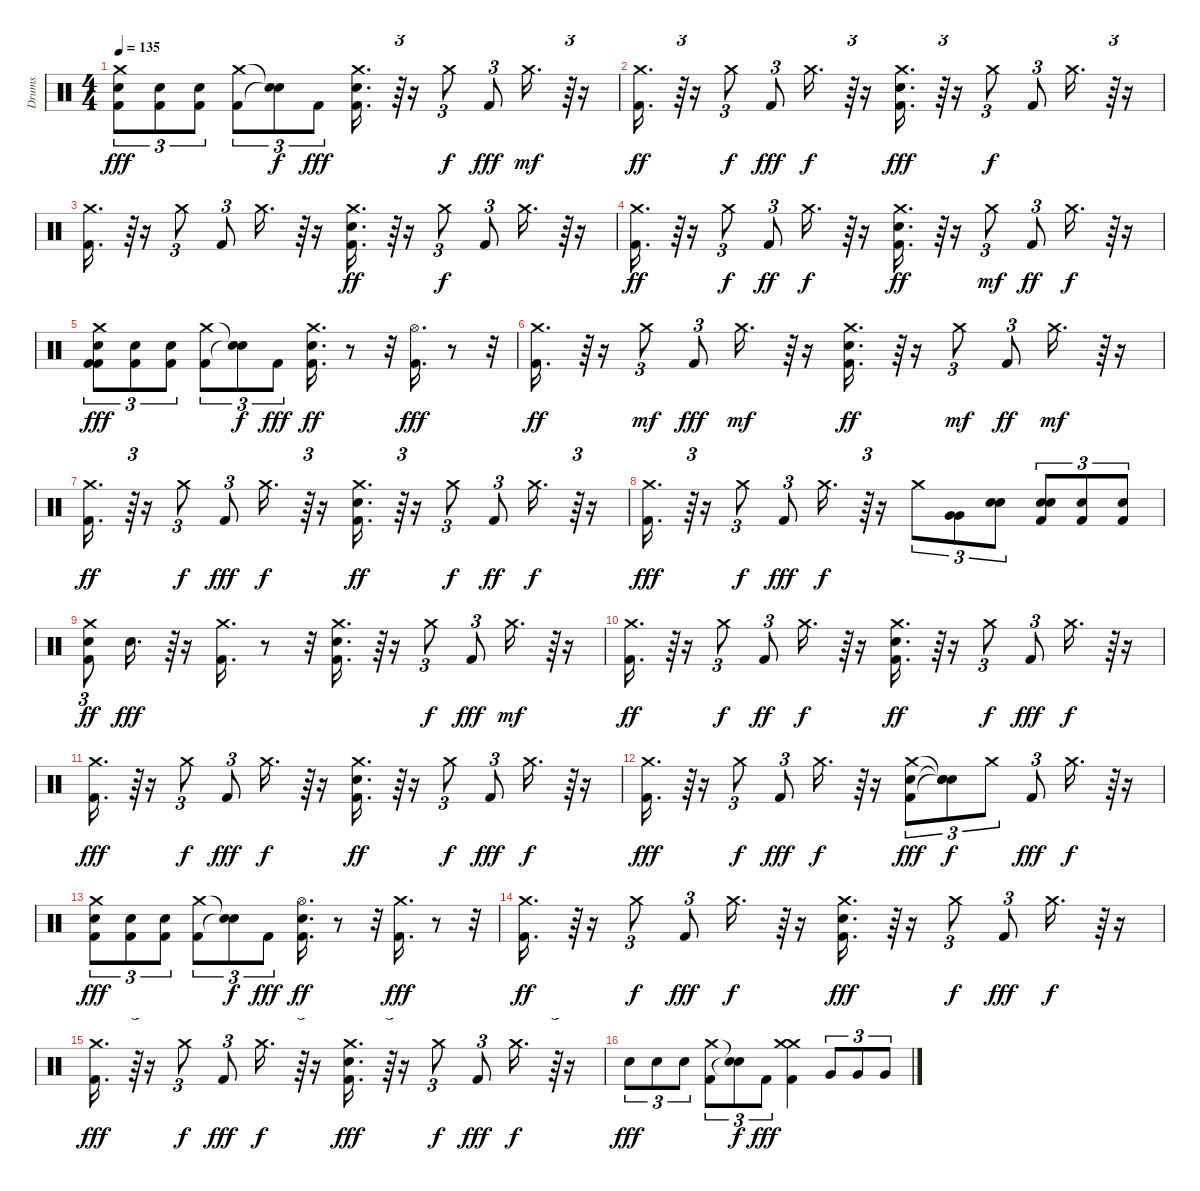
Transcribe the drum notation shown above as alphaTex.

\track ("Drums" "Drums") {instrument percussion}
\staff {score}
\articulation defaults
\ts (4 4)
\tempo 135
\clef neutral
\ks c
("Crash medium (hit)" "Snare (hit) 2" "Kick (hit) 2").8{tu (3 2) dy fff} ("Snare (hit) 2" "Kick (hit) 2").8{tu (3 2)} ("Kick (hit) 2" "Snare (hit) 2").8{tu (3 2)} ("Crash medium (hit)" "Kick (hit) 2").8{tu (3 2)} ("Snare (hit)"{t} "Snare (hit)"{t}).8{tu (3 2) dy f} "Kick (hit) 2".8{tu (3 2) dy fff} ("Crash medium (hit)" "Snare (hit) 2" "Kick (hit) 2").16{d} r.64{tu (3 2)} r.16 "Crash medium (hit)".8{tu (3 2) dy f} "Kick (hit) 2".8{tu (3 2) dy fff} "Crash medium (hit)".16{d dy mf} r.64{tu (3 2)} r.16 |
("Crash medium (hit)" "Kick (hit) 2").16{d dy ff} r.64{tu (3 2)} r.16 "Crash medium (hit)".8{tu (3 2) dy f} "Kick (hit) 2".8{tu (3 2) dy fff} "Crash medium (hit)".16{d dy f} r.64{tu (3 2)} r.16 ("Crash medium (hit)" "Kick (hit) 2" "Snare (hit) 2").16{d dy fff} r.64{tu (3 2)} r.16 "Crash medium (hit)".8{tu (3 2) dy f} "Kick (hit) 2".8{tu (3 2)} "Crash medium (hit)".16{d} r.64{tu (3 2)} r.16 |
("Crash medium (hit)" "Kick (hit) 2").16{d} r.64{tu (3 2)} r.16 "Crash medium (hit)".8{tu (3 2)} "Kick (hit) 2".8{tu (3 2)} "Crash medium (hit)".16{d} r.64{tu (3 2)} r.16 ("Crash medium (hit)" "Kick (hit) 2" "Snare (hit) 2").16{d dy ff} r.64{tu (3 2)} r.16 "Crash medium (hit)".8{tu (3 2) dy f} "Kick (hit) 2".8{tu (3 2)} "Crash medium (hit)".16{d} r.64{tu (3 2)} r.16 |
("Crash medium (hit)" "Kick (hit) 2").16{d dy ff} r.64{tu (3 2)} r.16 "Crash medium (hit)".8{tu (3 2) dy f} "Kick (hit) 2".8{tu (3 2) dy ff} "Crash medium (hit)".16{d dy f} r.64{tu (3 2)} r.16 ("Crash medium (hit)" "Kick (hit) 2" "Snare (hit) 2").16{d dy ff} r.64{tu (3 2)} r.16 "Crash medium (hit)".8{tu (3 2) dy mf} "Kick (hit) 2".8{tu (3 2) dy ff} "Crash medium (hit)".16{d dy f} r.64{tu (3 2)} r.16 |
("Crash medium (hit)" "Kick (hit) 2" "Snare (hit) 2" "Kick (hit) 2").8{tu (3 2) dy fff} ("Kick (hit) 2" "Snare (hit) 2").8{tu (3 2)} ("Snare (hit) 2" "Kick (hit) 2").8{tu (3 2)} ("Crash medium (hit)" "Kick (hit) 2").8{tu (3 2)} ("Snare (hit)"{t} "Snare (hit)"{t}).8{tu (3 2) dy f} "Kick (hit) 2".8{tu (3 2) dy fff} ("Crash medium (hit)" "Kick (hit) 2" "Snare (hit) 2").16{d dy ff} r.8 r.32 ("Hi-Hat (open)" "Kick (hit) 2").16{d dy fff} r.8 r.32 |
("Crash medium (hit)" "Kick (hit) 2").16{d dy ff} r.64{tu (3 2)} r.16 "Crash medium (hit)".8{tu (3 2) dy mf} "Kick (hit) 2".8{tu (3 2) dy fff} "Crash medium (hit)".16{d dy mf} r.64{tu (3 2)} r.16 ("Crash medium (hit)" "Kick (hit) 2" "Snare (hit) 2").16{d dy ff} r.64{tu (3 2)} r.16 "Crash medium (hit)".8{tu (3 2) dy mf} "Kick (hit) 2".8{tu (3 2) dy ff} "Crash medium (hit)".16{d dy mf} r.64{tu (3 2)} r.16 |
("Crash medium (hit)" "Kick (hit) 2").16{d dy ff} r.64{tu (3 2)} r.16 "Crash medium (hit)".8{tu (3 2) dy f} "Kick (hit) 2".8{tu (3 2) dy fff} "Crash medium (hit)".16{d dy f} r.64{tu (3 2)} r.16 ("Crash medium (hit)" "Snare (hit) 2" "Kick (hit) 2").16{d dy ff} r.64{tu (3 2)} r.16 "Crash medium (hit)".8{tu (3 2) dy f} "Kick (hit) 2".8{tu (3 2) dy ff} "Crash medium (hit)".16{d dy f} r.64{tu (3 2)} r.16 |
("Crash medium (hit)" "Kick (hit) 2").16{d dy fff} r.64{tu (3 2)} r.16 "Crash medium (hit)".8{tu (3 2) dy f} "Kick (hit) 2".8{tu (3 2) dy fff} "Crash medium (hit)".16{d dy f} r.64{tu (3 2)} r.16 "Crash medium (hit)".8{tu (3 2)} ("Very Low Tom (hit)" "Very Low Tom (hit)").8{tu (3 2)} ("Snare (hit) 2" "Snare (hit) 2").8{tu (3 2)} ("Snare (hit) 2" "Snare (hit) 2" "Kick (hit) 2").8{tu (3 2)} ("Snare (hit) 2" "Kick (hit) 2").8{tu (3 2)} ("Snare (hit) 2" "Kick (hit) 2").8{tu (3 2)} |
("Crash medium (hit)" "Kick (hit) 2" "Snare (hit) 2").8{tu (3 2) dy ff} "Snare (hit) 2".16{d dy fff} r.64{tu (3 2)} r.16 ("Crash medium (hit)" "Kick (hit) 2").16{d} r.8 r.32 ("Crash medium (hit)" "Snare (hit) 2" "Kick (hit) 2").16{d} r.64{tu (3 2)} r.16 "Crash medium (hit)".8{tu (3 2) dy f} "Kick (hit) 2".8{tu (3 2) dy fff} "Crash medium (hit)".16{d dy mf} r.64{tu (3 2)} r.16 |
("Crash medium (hit)" "Kick (hit) 2").16{d dy ff} r.64{tu (3 2)} r.16 "Crash medium (hit)".8{tu (3 2) dy f} "Kick (hit) 2".8{tu (3 2) dy ff} "Crash medium (hit)".16{d dy f} r.64{tu (3 2)} r.16 ("Crash medium (hit)" "Kick (hit) 2" "Snare (hit) 2").16{d dy ff} r.64{tu (3 2)} r.16 "Crash medium (hit)".8{tu (3 2) dy f} "Kick (hit) 2".8{tu (3 2) dy fff} "Crash medium (hit)".16{d dy f} r.64{tu (3 2)} r.16 |
("Crash medium (hit)" "Kick (hit) 2").16{d dy fff} r.64{tu (3 2)} r.16 "Crash medium (hit)".8{tu (3 2) dy f} "Kick (hit) 2".8{tu (3 2) dy fff} "Crash medium (hit)".16{d dy f} r.64{tu (3 2)} r.16 ("Crash medium (hit)" "Kick (hit) 2" "Snare (hit) 2").16{d dy ff} r.64{tu (3 2)} r.16 "Crash medium (hit)".8{tu (3 2) dy f} "Kick (hit) 2".8{tu (3 2) dy fff} "Crash medium (hit)".16{d dy f} r.64{tu (3 2)} r.16 |
("Crash medium (hit)" "Kick (hit) 2").16{d dy fff} r.64{tu (3 2)} r.16 "Crash medium (hit)".8{tu (3 2) dy f} "Kick (hit) 2".8{tu (3 2) dy fff} "Crash medium (hit)".16{d dy f} r.64{tu (3 2)} r.16 ("Crash medium (hit)" "Snare (hit) 2" "Kick (hit) 2").8{tu (3 2) dy fff} ("Snare (hit)"{t} "Snare (hit)"{t} "Snare (hit)"{t}).8{tu (3 2) dy f} "Crash medium (hit)".8{tu (3 2)} "Kick (hit) 2".8{tu (3 2) dy fff} "Crash medium (hit)".16{d dy f} r.64{tu (3 2)} r.16 |
("Crash medium (hit)" "Snare (hit) 2" "Kick (hit) 2").8{tu (3 2) dy fff} ("Snare (hit) 2" "Kick (hit) 2").8{tu (3 2)} ("Kick (hit) 2" "Snare (hit) 2").8{tu (3 2)} ("Crash medium (hit)" "Kick (hit) 2").8{tu (3 2)} ("Snare (hit)"{t} "Snare (hit)"{t}).8{tu (3 2) dy f} "Kick (hit) 2".8{tu (3 2) dy fff} ("Hi-Hat (open)" "Kick (hit) 2" "Snare (hit) 2").16{d dy ff} r.8 r.32 ("Crash medium (hit)" "Kick (hit) 2").16{d dy fff} r.8 r.32 |
("Crash medium (hit)" "Kick (hit) 2").16{d dy ff} r.64{tu (3 2)} r.16 "Crash medium (hit)".8{tu (3 2) dy f} "Kick (hit) 2".8{tu (3 2) dy fff} "Crash medium (hit)".16{d dy f} r.64{tu (3 2)} r.16 ("Crash medium (hit)" "Snare (hit) 2" "Kick (hit) 2").16{d dy fff} r.64{tu (3 2)} r.16 "Crash medium (hit)".8{tu (3 2) dy f} "Kick (hit) 2".8{tu (3 2) dy fff} "Crash medium (hit)".16{d dy f} r.64{tu (3 2)} r.16 |
("Crash medium (hit)" "Kick (hit) 2").16{d dy fff} r.64{tu (3 2)} r.16 "Crash medium (hit)".8{tu (3 2) dy f} "Kick (hit) 2".8{tu (3 2) dy fff} "Crash medium (hit)".16{d dy f} r.64{tu (3 2)} r.16 ("Crash medium (hit)" "Snare (hit) 2" "Kick (hit) 2").16{d dy fff} r.64{tu (3 2)} r.16 "Crash medium (hit)".8{tu (3 2) dy f} "Kick (hit) 2".8{tu (3 2) dy fff} "Crash medium (hit)".16{d dy f} r.64{tu (3 2)} r.16 |
"Snare (hit) 2".8{tu (3 2) dy fff} "Snare (hit) 2".8{tu (3 2)} "Snare (hit) 2".8{tu (3 2)} ("Crash medium (hit)" "Kick (hit) 2").8{tu (3 2)} ("Snare (hit)"{t} "Snare (hit)"{t}).8{tu (3 2) dy f} "Kick (hit) 2".8{tu (3 2) dy fff} ("Crash medium (hit)" "Crash medium (hit)" "Kick (hit) 2").4 "Very Low Tom (hit)".8{tu (3 2)} "Very Low Tom (hit)".8{tu (3 2)} "Very Low Tom (hit)".8{tu (3 2)}
